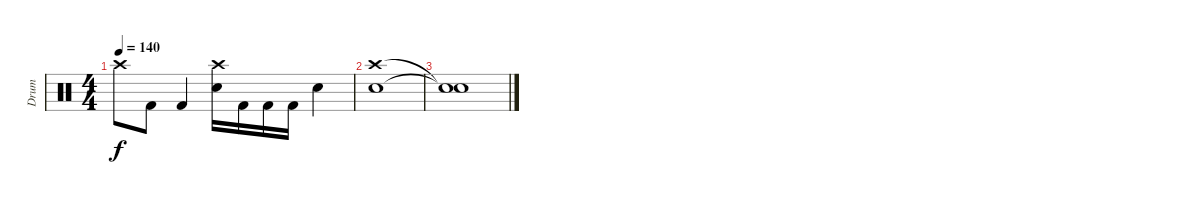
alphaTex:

\track ("Drum" "Drum") {instrument percussion}
\staff {score}
\articulation defaults
\ts (4 4)
\tempo 140
\clef neutral
\ks c "Crash high (hit)".8{dy f} "Kick (hit) 2".8 "Kick (hit) 2".4
("Crash high (hit)" "Electric Snare (hit)").16 "Kick (hit) 2".16 "Kick (hit) 2".16 "Kick (hit) 2".16 "Electric Snare (hit)".4 |
("Crash high (hit)" "Electric Snare (hit)").1 |
("Snare (hit)"{t} "Snare (hit)"{t}).1{volume 0}
